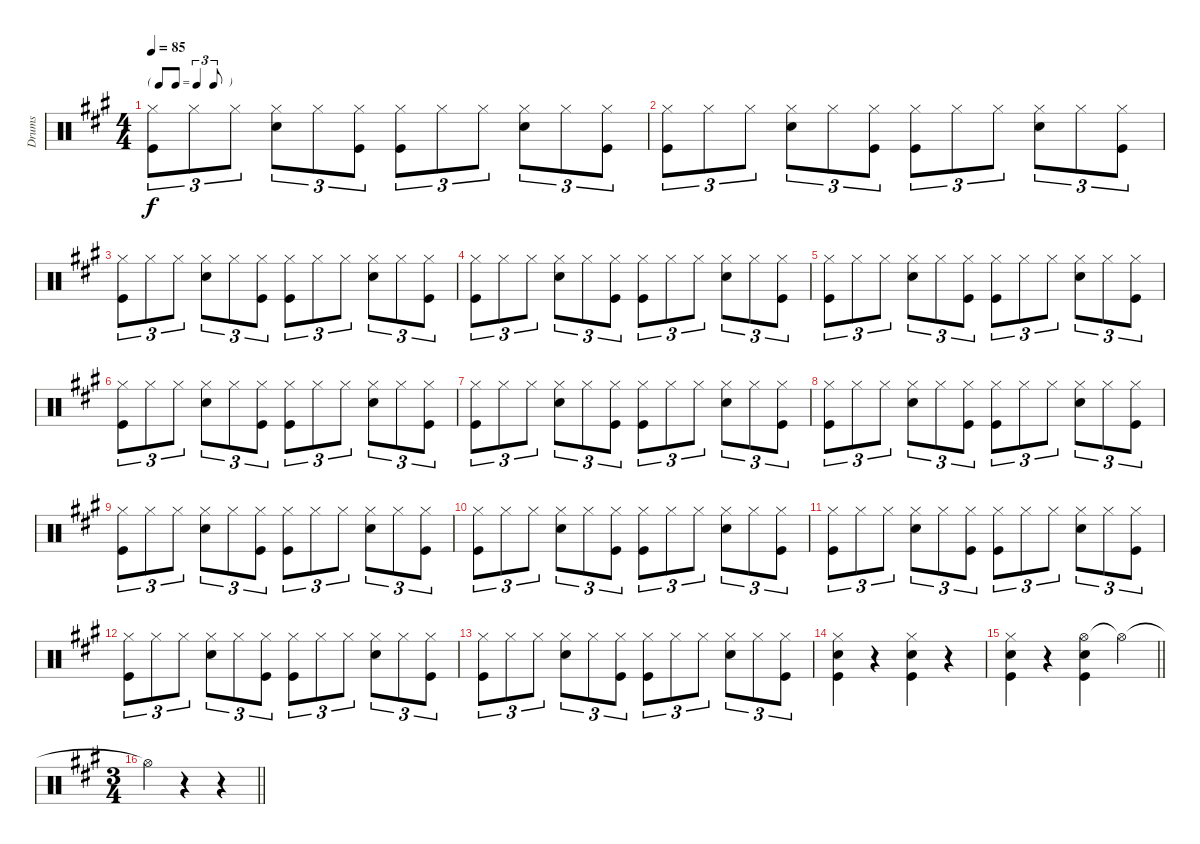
\track ("Drums" "Drums") {instrument percussion}
\staff {score}
\articulation defaults
\ts (4 4)
\tf triplet8th
\tempo 85
\clef neutral
\ks a
("Hi-Hat (closed)" "Kick (hit)").8{tu (3 2) dy f} "Hi-Hat (closed)".8{tu (3 2)} "Hi-Hat (closed)".8{tu (3 2)} ("Hi-Hat (closed)" "Snare (hit) 2").8{tu (3 2)} "Hi-Hat (closed)".8{tu (3 2)} ("Hi-Hat (closed)" "Kick (hit)").8{tu (3 2)} ("Hi-Hat (closed)" "Kick (hit)").8{tu (3 2)} "Hi-Hat (closed)".8{tu (3 2)} "Hi-Hat (closed)".8{tu (3 2)} ("Hi-Hat (closed)" "Snare (hit) 2").8{tu (3 2)} "Hi-Hat (closed)".8{tu (3 2)} ("Hi-Hat (closed)" "Kick (hit)").8{tu (3 2)} |
("Hi-Hat (closed)" "Kick (hit)").8{tu (3 2)} "Hi-Hat (closed)".8{tu (3 2)} "Hi-Hat (closed)".8{tu (3 2)} ("Hi-Hat (closed)" "Snare (hit) 2").8{tu (3 2)} "Hi-Hat (closed)".8{tu (3 2)} ("Hi-Hat (closed)" "Kick (hit)").8{tu (3 2)} ("Hi-Hat (closed)" "Kick (hit)").8{tu (3 2)} "Hi-Hat (closed)".8{tu (3 2)} "Hi-Hat (closed)".8{tu (3 2)} ("Hi-Hat (closed)" "Snare (hit) 2").8{tu (3 2)} "Hi-Hat (closed)".8{tu (3 2)} ("Hi-Hat (closed)" "Kick (hit)").8{tu (3 2)} |
("Hi-Hat (closed)" "Kick (hit)").8{tu (3 2)} "Hi-Hat (closed)".8{tu (3 2)} "Hi-Hat (closed)".8{tu (3 2)} ("Hi-Hat (closed)" "Snare (hit) 2").8{tu (3 2)} "Hi-Hat (closed)".8{tu (3 2)} ("Hi-Hat (closed)" "Kick (hit)").8{tu (3 2)} ("Hi-Hat (closed)" "Kick (hit)").8{tu (3 2)} "Hi-Hat (closed)".8{tu (3 2)} "Hi-Hat (closed)".8{tu (3 2)} ("Hi-Hat (closed)" "Snare (hit) 2").8{tu (3 2)} "Hi-Hat (closed)".8{tu (3 2)} ("Hi-Hat (closed)" "Kick (hit)").8{tu (3 2)} |
("Hi-Hat (closed)" "Kick (hit)").8{tu (3 2)} "Hi-Hat (closed)".8{tu (3 2)} "Hi-Hat (closed)".8{tu (3 2)} ("Hi-Hat (closed)" "Snare (hit) 2").8{tu (3 2)} "Hi-Hat (closed)".8{tu (3 2)} ("Hi-Hat (closed)" "Kick (hit)").8{tu (3 2)} ("Hi-Hat (closed)" "Kick (hit)").8{tu (3 2)} "Hi-Hat (closed)".8{tu (3 2)} "Hi-Hat (closed)".8{tu (3 2)} ("Hi-Hat (closed)" "Snare (hit) 2").8{tu (3 2)} "Hi-Hat (closed)".8{tu (3 2)} ("Hi-Hat (closed)" "Kick (hit)").8{tu (3 2)} |
("Hi-Hat (closed)" "Kick (hit)").8{tu (3 2)} "Hi-Hat (closed)".8{tu (3 2)} "Hi-Hat (closed)".8{tu (3 2)} ("Hi-Hat (closed)" "Snare (hit) 2").8{tu (3 2)} "Hi-Hat (closed)".8{tu (3 2)} ("Hi-Hat (closed)" "Kick (hit)").8{tu (3 2)} ("Hi-Hat (closed)" "Kick (hit)").8{tu (3 2)} "Hi-Hat (closed)".8{tu (3 2)} "Hi-Hat (closed)".8{tu (3 2)} ("Hi-Hat (closed)" "Snare (hit) 2").8{tu (3 2)} "Hi-Hat (closed)".8{tu (3 2)} ("Hi-Hat (closed)" "Kick (hit)").8{tu (3 2)} |
("Hi-Hat (closed)" "Kick (hit)").8{tu (3 2)} "Hi-Hat (closed)".8{tu (3 2)} "Hi-Hat (closed)".8{tu (3 2)} ("Hi-Hat (closed)" "Snare (hit) 2").8{tu (3 2)} "Hi-Hat (closed)".8{tu (3 2)} ("Hi-Hat (closed)" "Kick (hit)").8{tu (3 2)} ("Hi-Hat (closed)" "Kick (hit)").8{tu (3 2)} "Hi-Hat (closed)".8{tu (3 2)} "Hi-Hat (closed)".8{tu (3 2)} ("Hi-Hat (closed)" "Snare (hit) 2").8{tu (3 2)} "Hi-Hat (closed)".8{tu (3 2)} ("Hi-Hat (closed)" "Kick (hit)").8{tu (3 2)} |
("Hi-Hat (closed)" "Kick (hit)").8{tu (3 2)} "Hi-Hat (closed)".8{tu (3 2)} "Hi-Hat (closed)".8{tu (3 2)} ("Hi-Hat (closed)" "Snare (hit) 2").8{tu (3 2)} "Hi-Hat (closed)".8{tu (3 2)} ("Hi-Hat (closed)" "Kick (hit)").8{tu (3 2)} ("Hi-Hat (closed)" "Kick (hit)").8{tu (3 2)} "Hi-Hat (closed)".8{tu (3 2)} "Hi-Hat (closed)".8{tu (3 2)} ("Hi-Hat (closed)" "Snare (hit) 2").8{tu (3 2)} "Hi-Hat (closed)".8{tu (3 2)} ("Hi-Hat (closed)" "Kick (hit)").8{tu (3 2)} |
("Hi-Hat (closed)" "Kick (hit)").8{tu (3 2)} "Hi-Hat (closed)".8{tu (3 2)} "Hi-Hat (closed)".8{tu (3 2)} ("Hi-Hat (closed)" "Snare (hit) 2").8{tu (3 2)} "Hi-Hat (closed)".8{tu (3 2)} ("Hi-Hat (closed)" "Kick (hit)").8{tu (3 2)} ("Hi-Hat (closed)" "Kick (hit)").8{tu (3 2)} "Hi-Hat (closed)".8{tu (3 2)} "Hi-Hat (closed)".8{tu (3 2)} ("Hi-Hat (closed)" "Snare (hit) 2").8{tu (3 2)} "Hi-Hat (closed)".8{tu (3 2)} ("Hi-Hat (closed)" "Kick (hit)").8{tu (3 2)} |
("Hi-Hat (closed)" "Kick (hit)").8{tu (3 2)} "Hi-Hat (closed)".8{tu (3 2)} "Hi-Hat (closed)".8{tu (3 2)} ("Hi-Hat (closed)" "Snare (hit) 2").8{tu (3 2)} "Hi-Hat (closed)".8{tu (3 2)} ("Hi-Hat (closed)" "Kick (hit)").8{tu (3 2)} ("Hi-Hat (closed)" "Kick (hit)").8{tu (3 2)} "Hi-Hat (closed)".8{tu (3 2)} "Hi-Hat (closed)".8{tu (3 2)} ("Hi-Hat (closed)" "Snare (hit) 2").8{tu (3 2)} "Hi-Hat (closed)".8{tu (3 2)} ("Hi-Hat (closed)" "Kick (hit)").8{tu (3 2)} |
("Hi-Hat (closed)" "Kick (hit)").8{tu (3 2)} "Hi-Hat (closed)".8{tu (3 2)} "Hi-Hat (closed)".8{tu (3 2)} ("Hi-Hat (closed)" "Snare (hit) 2").8{tu (3 2)} "Hi-Hat (closed)".8{tu (3 2)} ("Hi-Hat (closed)" "Kick (hit)").8{tu (3 2)} ("Hi-Hat (closed)" "Kick (hit)").8{tu (3 2)} "Hi-Hat (closed)".8{tu (3 2)} "Hi-Hat (closed)".8{tu (3 2)} ("Hi-Hat (closed)" "Snare (hit) 2").8{tu (3 2)} "Hi-Hat (closed)".8{tu (3 2)} ("Hi-Hat (closed)" "Kick (hit)").8{tu (3 2)} |
("Hi-Hat (closed)" "Kick (hit)").8{tu (3 2)} "Hi-Hat (closed)".8{tu (3 2)} "Hi-Hat (closed)".8{tu (3 2)} ("Hi-Hat (closed)" "Snare (hit) 2").8{tu (3 2)} "Hi-Hat (closed)".8{tu (3 2)} ("Hi-Hat (closed)" "Kick (hit)").8{tu (3 2)} ("Hi-Hat (closed)" "Kick (hit)").8{tu (3 2)} "Hi-Hat (closed)".8{tu (3 2)} "Hi-Hat (closed)".8{tu (3 2)} ("Hi-Hat (closed)" "Snare (hit) 2").8{tu (3 2)} "Hi-Hat (closed)".8{tu (3 2)} ("Hi-Hat (closed)" "Kick (hit)").8{tu (3 2)} |
("Hi-Hat (closed)" "Kick (hit)").8{tu (3 2)} "Hi-Hat (closed)".8{tu (3 2)} "Hi-Hat (closed)".8{tu (3 2)} ("Hi-Hat (closed)" "Snare (hit) 2").8{tu (3 2)} "Hi-Hat (closed)".8{tu (3 2)} ("Hi-Hat (closed)" "Kick (hit)").8{tu (3 2)} ("Hi-Hat (closed)" "Kick (hit)").8{tu (3 2)} "Hi-Hat (closed)".8{tu (3 2)} "Hi-Hat (closed)".8{tu (3 2)} ("Hi-Hat (closed)" "Snare (hit) 2").8{tu (3 2)} "Hi-Hat (closed)".8{tu (3 2)} ("Hi-Hat (closed)" "Kick (hit)").8{tu (3 2)} |
("Hi-Hat (closed)" "Kick (hit)").8{tu (3 2)} "Hi-Hat (closed)".8{tu (3 2)} "Hi-Hat (closed)".8{tu (3 2)} ("Hi-Hat (closed)" "Snare (hit) 2").8{tu (3 2)} "Hi-Hat (closed)".8{tu (3 2)} ("Hi-Hat (closed)" "Kick (hit)").8{tu (3 2)} ("Hi-Hat (closed)" "Kick (hit)").8{tu (3 2)} "Hi-Hat (closed)".8{tu (3 2)} "Hi-Hat (closed)".8{tu (3 2)} ("Hi-Hat (closed)" "Snare (hit) 2").8{tu (3 2)} "Hi-Hat (closed)".8{tu (3 2)} ("Hi-Hat (closed)" "Kick (hit)").8{tu (3 2)} |
("Kick (hit)" "Snare (hit) 2" "Hi-Hat (closed)").4 r.4 ("Kick (hit)" "Snare (hit) 2" "Hi-Hat (closed)").4 r.4 |
\barLineRight lightlight
("Kick (hit)" "Snare (hit) 2" "Hi-Hat (closed)").4 r.4 ("Hi-Hat (open)" "Snare (hit) 2" "Kick (hit)").4 "Hi-Hat (open)"{t}.4 |
\ts (3 4)
\barLineRight lightlight "Hi-Hat (open)"{t}.4
r.4 r.4
